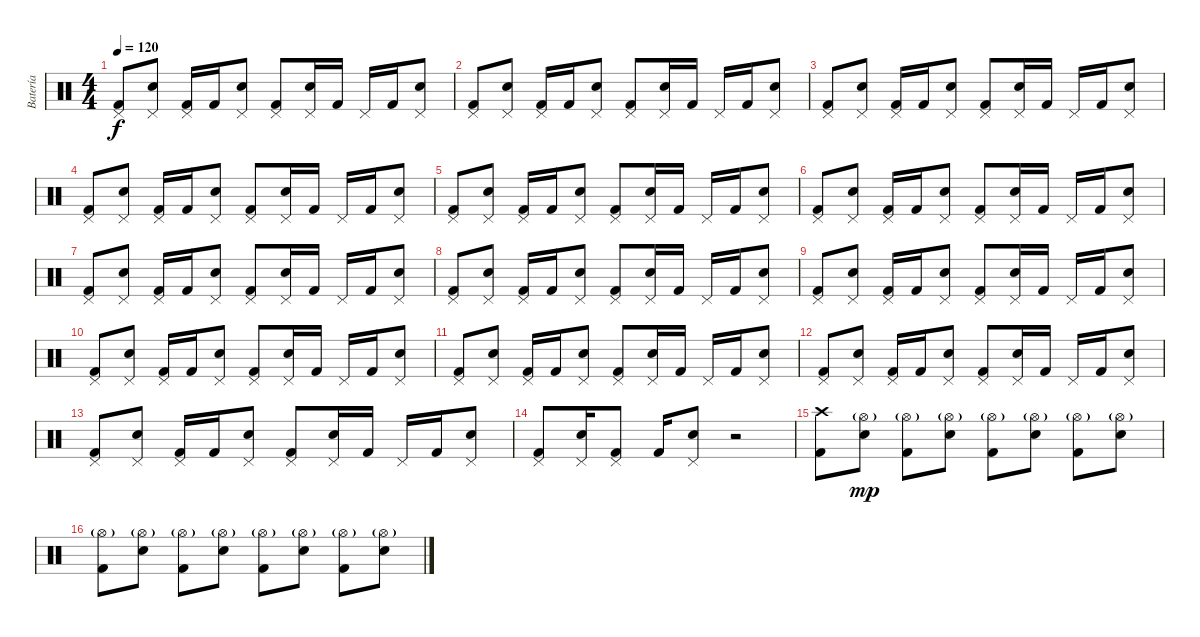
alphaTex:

\track ("Batería" "Batería") {instrument percussion}
\staff {score}
\articulation defaults
\ts (4 4)
\tempo 120
\clef neutral
\ks c
("Pedal Hi-Hat (hit)" "Kick (hit) 2").8{dy f} ("Pedal Hi-Hat (hit)" "Snare (hit) 2").8 ("Pedal Hi-Hat (hit)" "Kick (hit) 2").16 "Kick (hit) 2".16 ("Pedal Hi-Hat (hit)" "Snare (hit) 2").8 ("Pedal Hi-Hat (hit)" "Kick (hit) 2").8 ("Pedal Hi-Hat (hit)" "Snare (hit) 2").16 "Kick (hit) 2".16 "Pedal Hi-Hat (hit)".16 "Kick (hit) 2".16 ("Pedal Hi-Hat (hit)" "Snare (hit) 2").8 |
("Pedal Hi-Hat (hit)" "Kick (hit) 2").8 ("Pedal Hi-Hat (hit)" "Snare (hit) 2").8 ("Pedal Hi-Hat (hit)" "Kick (hit) 2").16 "Kick (hit) 2".16 ("Pedal Hi-Hat (hit)" "Snare (hit) 2").8 ("Pedal Hi-Hat (hit)" "Kick (hit) 2").8 ("Pedal Hi-Hat (hit)" "Snare (hit) 2").16 "Kick (hit) 2".16 "Pedal Hi-Hat (hit)".16 "Kick (hit) 2".16 ("Pedal Hi-Hat (hit)" "Snare (hit) 2").8 |
("Pedal Hi-Hat (hit)" "Kick (hit) 2").8 ("Pedal Hi-Hat (hit)" "Snare (hit) 2").8 ("Pedal Hi-Hat (hit)" "Kick (hit) 2").16 "Kick (hit) 2".16 ("Pedal Hi-Hat (hit)" "Snare (hit) 2").8 ("Pedal Hi-Hat (hit)" "Kick (hit) 2").8 ("Pedal Hi-Hat (hit)" "Snare (hit) 2").16 "Kick (hit) 2".16 "Pedal Hi-Hat (hit)".16 "Kick (hit) 2".16 ("Pedal Hi-Hat (hit)" "Snare (hit) 2").8 |
("Pedal Hi-Hat (hit)" "Kick (hit) 2").8 ("Pedal Hi-Hat (hit)" "Snare (hit) 2").8 ("Pedal Hi-Hat (hit)" "Kick (hit) 2").16 "Kick (hit) 2".16 ("Pedal Hi-Hat (hit)" "Snare (hit) 2").8 ("Pedal Hi-Hat (hit)" "Kick (hit) 2").8 ("Pedal Hi-Hat (hit)" "Snare (hit) 2").16 "Kick (hit) 2".16 "Pedal Hi-Hat (hit)".16 "Kick (hit) 2".16 ("Pedal Hi-Hat (hit)" "Snare (hit) 2").8 |
("Pedal Hi-Hat (hit)" "Kick (hit) 2").8 ("Pedal Hi-Hat (hit)" "Snare (hit) 2").8 ("Pedal Hi-Hat (hit)" "Kick (hit) 2").16 "Kick (hit) 2".16 ("Pedal Hi-Hat (hit)" "Snare (hit) 2").8 ("Pedal Hi-Hat (hit)" "Kick (hit) 2").8 ("Pedal Hi-Hat (hit)" "Snare (hit) 2").16 "Kick (hit) 2".16 "Pedal Hi-Hat (hit)".16 "Kick (hit) 2".16 ("Pedal Hi-Hat (hit)" "Snare (hit) 2").8 |
("Pedal Hi-Hat (hit)" "Kick (hit) 2").8 ("Pedal Hi-Hat (hit)" "Snare (hit) 2").8 ("Pedal Hi-Hat (hit)" "Kick (hit) 2").16 "Kick (hit) 2".16 ("Pedal Hi-Hat (hit)" "Snare (hit) 2").8 ("Pedal Hi-Hat (hit)" "Kick (hit) 2").8 ("Pedal Hi-Hat (hit)" "Snare (hit) 2").16 "Kick (hit) 2".16 "Pedal Hi-Hat (hit)".16 "Kick (hit) 2".16 ("Pedal Hi-Hat (hit)" "Snare (hit) 2").8 |
("Pedal Hi-Hat (hit)" "Kick (hit) 2").8 ("Pedal Hi-Hat (hit)" "Snare (hit) 2").8 ("Pedal Hi-Hat (hit)" "Kick (hit) 2").16 "Kick (hit) 2".16 ("Pedal Hi-Hat (hit)" "Snare (hit) 2").8 ("Pedal Hi-Hat (hit)" "Kick (hit) 2").8 ("Pedal Hi-Hat (hit)" "Snare (hit) 2").16 "Kick (hit) 2".16 "Pedal Hi-Hat (hit)".16 "Kick (hit) 2".16 ("Pedal Hi-Hat (hit)" "Snare (hit) 2").8 |
("Pedal Hi-Hat (hit)" "Kick (hit) 2").8 ("Pedal Hi-Hat (hit)" "Snare (hit) 2").8 ("Pedal Hi-Hat (hit)" "Kick (hit) 2").16 "Kick (hit) 2".16 ("Pedal Hi-Hat (hit)" "Snare (hit) 2").8 ("Pedal Hi-Hat (hit)" "Kick (hit) 2").8 ("Pedal Hi-Hat (hit)" "Snare (hit) 2").16 "Kick (hit) 2".16 "Pedal Hi-Hat (hit)".16 "Kick (hit) 2".16 ("Pedal Hi-Hat (hit)" "Snare (hit) 2").8 |
("Pedal Hi-Hat (hit)" "Kick (hit) 2").8 ("Pedal Hi-Hat (hit)" "Snare (hit) 2").8 ("Pedal Hi-Hat (hit)" "Kick (hit) 2").16 "Kick (hit) 2".16 ("Pedal Hi-Hat (hit)" "Snare (hit) 2").8 ("Pedal Hi-Hat (hit)" "Kick (hit) 2").8 ("Pedal Hi-Hat (hit)" "Snare (hit) 2").16 "Kick (hit) 2".16 "Pedal Hi-Hat (hit)".16 "Kick (hit) 2".16 ("Pedal Hi-Hat (hit)" "Snare (hit) 2").8 |
("Pedal Hi-Hat (hit)" "Kick (hit) 2").8 ("Pedal Hi-Hat (hit)" "Snare (hit) 2").8 ("Pedal Hi-Hat (hit)" "Kick (hit) 2").16 "Kick (hit) 2".16 ("Pedal Hi-Hat (hit)" "Snare (hit) 2").8 ("Pedal Hi-Hat (hit)" "Kick (hit) 2").8 ("Pedal Hi-Hat (hit)" "Snare (hit) 2").16 "Kick (hit) 2".16 "Pedal Hi-Hat (hit)".16 "Kick (hit) 2".16 ("Pedal Hi-Hat (hit)" "Snare (hit) 2").8 |
("Pedal Hi-Hat (hit)" "Kick (hit) 2").8 ("Pedal Hi-Hat (hit)" "Snare (hit) 2").8 ("Pedal Hi-Hat (hit)" "Kick (hit) 2").16 "Kick (hit) 2".16 ("Pedal Hi-Hat (hit)" "Snare (hit) 2").8 ("Pedal Hi-Hat (hit)" "Kick (hit) 2").8 ("Pedal Hi-Hat (hit)" "Snare (hit) 2").16 "Kick (hit) 2".16 "Pedal Hi-Hat (hit)".16 "Kick (hit) 2".16 ("Pedal Hi-Hat (hit)" "Snare (hit) 2").8 |
("Pedal Hi-Hat (hit)" "Kick (hit) 2").8 ("Pedal Hi-Hat (hit)" "Snare (hit) 2").8 ("Pedal Hi-Hat (hit)" "Kick (hit) 2").16 "Kick (hit) 2".16 ("Pedal Hi-Hat (hit)" "Snare (hit) 2").8 ("Pedal Hi-Hat (hit)" "Kick (hit) 2").8 ("Pedal Hi-Hat (hit)" "Snare (hit) 2").16 "Kick (hit) 2".16 "Pedal Hi-Hat (hit)".16 "Kick (hit) 2".16 ("Pedal Hi-Hat (hit)" "Snare (hit) 2").8 |
("Pedal Hi-Hat (hit)" "Kick (hit) 2").8 ("Pedal Hi-Hat (hit)" "Snare (hit) 2").8 ("Pedal Hi-Hat (hit)" "Kick (hit) 2").16 "Kick (hit) 2".16 ("Pedal Hi-Hat (hit)" "Snare (hit) 2").8 ("Pedal Hi-Hat (hit)" "Kick (hit) 2").8 ("Pedal Hi-Hat (hit)" "Snare (hit) 2").16 "Kick (hit) 2".16 "Pedal Hi-Hat (hit)".16 "Kick (hit) 2".16 ("Pedal Hi-Hat (hit)" "Snare (hit) 2").8 |
("Pedal Hi-Hat (hit)" "Kick (hit) 2").8 ("Pedal Hi-Hat (hit)" "Snare (hit) 2").16 ("Pedal Hi-Hat (hit)" "Kick (hit) 2").8 "Kick (hit) 2".16 ("Pedal Hi-Hat (hit)" "Snare (hit) 2").8 r.2 |
("Crash high (hit)" "Kick (hit) 2").8 ("Hi-Hat (open)"{g} "Snare (hit) 2").8{dy mp} ("Hi-Hat (open)"{g} "Kick (hit) 2").8 ("Hi-Hat (open)"{g} "Snare (hit) 2").8 ("Hi-Hat (open)"{g} "Kick (hit) 2").8 ("Hi-Hat (open)"{g} "Snare (hit) 2").8 ("Hi-Hat (open)"{g} "Kick (hit) 2").8 ("Hi-Hat (open)"{g} "Snare (hit) 2").8 |
("Hi-Hat (open)"{g} "Kick (hit) 2").8 ("Hi-Hat (open)"{g} "Snare (hit) 2").8 ("Hi-Hat (open)"{g} "Kick (hit) 2").8 ("Hi-Hat (open)"{g} "Snare (hit) 2").8 ("Hi-Hat (open)"{g} "Kick (hit) 2").8 ("Hi-Hat (open)"{g} "Snare (hit) 2").8 ("Hi-Hat (open)"{g} "Kick (hit) 2").8 ("Hi-Hat (open)"{g} "Snare (hit) 2").8
